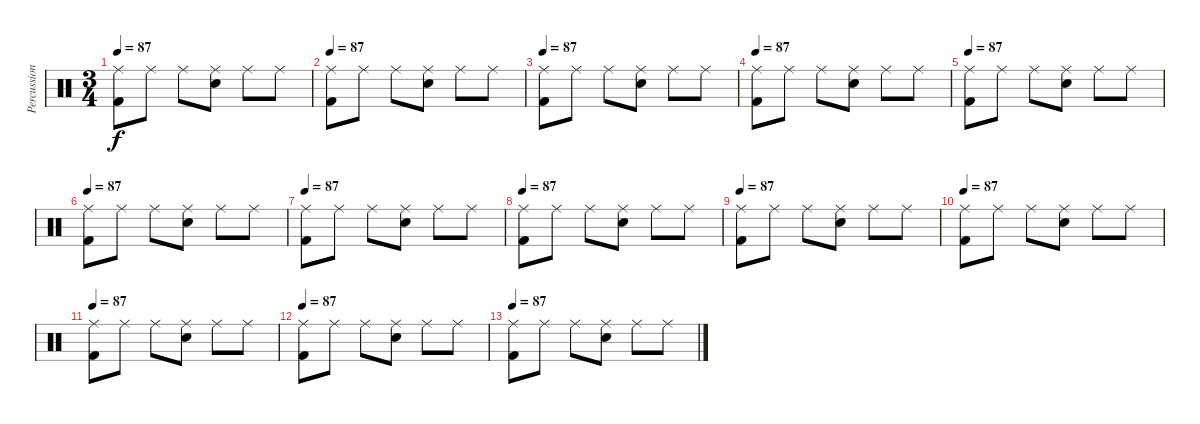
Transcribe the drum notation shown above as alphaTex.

\track ("Percussions" "Percussion") {instrument percussion}
\staff {score}
\articulation defaults
\ts (3 4)
\tempo 87
\clef neutral
\ks c
("Ride (middle)" "Kick (hit) 2").8{dy f} "Ride (middle)".8 "Ride (middle)".8 ("Ride (middle)" "Snare (hit) 2").8 "Ride (middle)".8 "Ride (middle)".8 |
\tempo 87
("Ride (middle)" "Kick (hit) 2").8 "Ride (middle)".8 "Ride (middle)".8 ("Ride (middle)" "Snare (hit) 2").8 "Ride (middle)".8 "Ride (middle)".8 |
\tempo 87
("Ride (middle)" "Kick (hit) 2").8 "Ride (middle)".8 "Ride (middle)".8 ("Ride (middle)" "Snare (hit) 2").8 "Ride (middle)".8 "Ride (middle)".8 |
\tempo 87
("Ride (middle)" "Kick (hit) 2").8 "Ride (middle)".8 "Ride (middle)".8 ("Ride (middle)" "Snare (hit) 2").8 "Ride (middle)".8 "Ride (middle)".8 |
\tempo 87
("Ride (middle)" "Kick (hit) 2").8 "Ride (middle)".8 "Ride (middle)".8 ("Ride (middle)" "Snare (hit) 2").8 "Ride (middle)".8 "Ride (middle)".8 |
\tempo 87
("Ride (middle)" "Kick (hit) 2").8 "Ride (middle)".8 "Ride (middle)".8 ("Ride (middle)" "Snare (hit) 2").8 "Ride (middle)".8 "Ride (middle)".8 |
\tempo 87
("Ride (middle)" "Kick (hit) 2").8 "Ride (middle)".8 "Ride (middle)".8 ("Ride (middle)" "Snare (hit) 2").8 "Ride (middle)".8 "Ride (middle)".8 |
\tempo 87
("Ride (middle)" "Kick (hit) 2").8 "Ride (middle)".8 "Ride (middle)".8 ("Ride (middle)" "Snare (hit) 2").8 "Ride (middle)".8 "Ride (middle)".8 |
\tempo 87
("Ride (middle)" "Kick (hit) 2").8 "Ride (middle)".8 "Ride (middle)".8 ("Ride (middle)" "Snare (hit) 2").8 "Ride (middle)".8 "Ride (middle)".8 |
\tempo 87
("Ride (middle)" "Kick (hit) 2").8 "Ride (middle)".8 "Ride (middle)".8 ("Ride (middle)" "Snare (hit) 2").8 "Ride (middle)".8 "Ride (middle)".8 |
\tempo 87
("Ride (middle)" "Kick (hit) 2").8 "Ride (middle)".8 "Ride (middle)".8 ("Ride (middle)" "Snare (hit) 2").8 "Ride (middle)".8 "Ride (middle)".8 |
\tempo 87
("Ride (middle)" "Kick (hit) 2").8 "Ride (middle)".8 "Ride (middle)".8 ("Ride (middle)" "Snare (hit) 2").8 "Ride (middle)".8 "Ride (middle)".8 |
\tempo 87
("Ride (middle)" "Kick (hit) 2").8 "Ride (middle)".8 "Ride (middle)".8 ("Ride (middle)" "Snare (hit) 2").8 "Ride (middle)".8 "Ride (middle)".8
